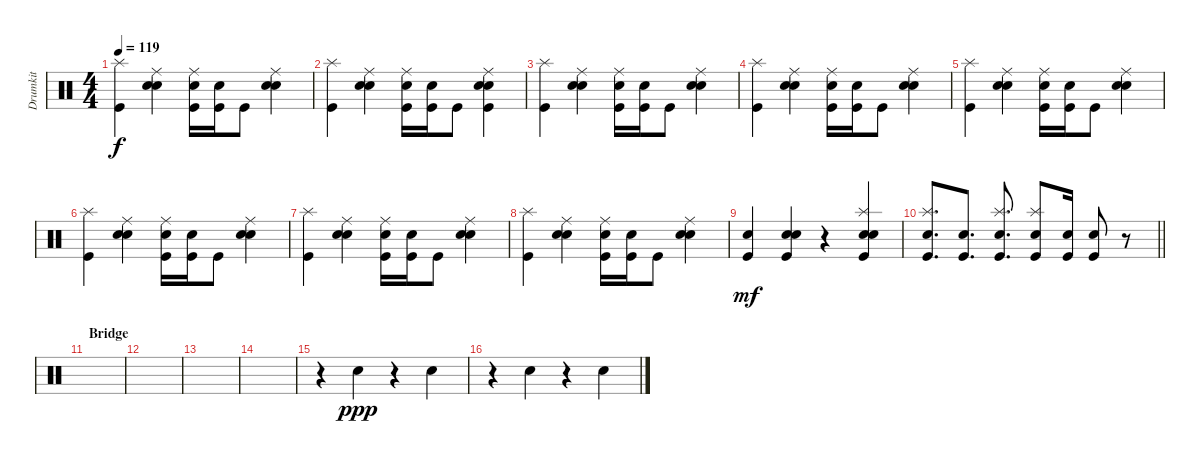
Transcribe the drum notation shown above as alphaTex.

\track ("Drumkit" "Drumkit") {instrument percussion}
\staff {score}
\articulation defaults
\ts (4 4)
\tempo 119
\clef neutral
\ks c
("Kick (hit)" "Splash (hit)").4{dy f} ("Hand Clap (hit)" "Snare (hit) 2" "Ride (middle)").4 ("Kick (hit)" "Snare (hit) 2" "Ride (middle)").16 ("Kick (hit)" "Snare (hit) 2").16 "Kick (hit)".8 ("Hand Clap (hit)" "Snare (hit) 2" "Ride (middle)").4 |
("Kick (hit)" "Splash (hit)").4 ("Hand Clap (hit)" "Snare (hit) 2" "Ride (middle)").4 ("Kick (hit)" "Snare (hit) 2" "Ride (middle)").16 ("Kick (hit)" "Snare (hit) 2").16 "Kick (hit)".8 ("Hand Clap (hit)" "Snare (hit) 2" "Ride (middle)" "Kick (hit)").4 |
("Kick (hit)" "Splash (hit)").4 ("Hand Clap (hit)" "Snare (hit) 2" "Ride (middle)").4 ("Kick (hit)" "Snare (hit) 2" "Ride (middle)").16 ("Kick (hit)" "Snare (hit) 2").16 "Kick (hit)".8 ("Hand Clap (hit)" "Snare (hit) 2" "Ride (middle)").4 |
("Kick (hit)" "Splash (hit)").4 ("Hand Clap (hit)" "Snare (hit) 2" "Ride (middle)").4 ("Kick (hit)" "Snare (hit) 2" "Ride (middle)").16 ("Kick (hit)" "Snare (hit) 2").16 "Kick (hit)".8 ("Hand Clap (hit)" "Snare (hit) 2" "Ride (middle)").4 |
("Kick (hit)" "Splash (hit)").4 ("Hand Clap (hit)" "Snare (hit) 2" "Ride (middle)").4 ("Kick (hit)" "Snare (hit) 2" "Ride (middle)").16 ("Kick (hit)" "Snare (hit) 2").16 "Kick (hit)".8 ("Hand Clap (hit)" "Snare (hit) 2" "Ride (middle)").4 |
("Kick (hit)" "Splash (hit)").4 ("Hand Clap (hit)" "Snare (hit) 2" "Ride (middle)").4 ("Kick (hit)" "Snare (hit) 2" "Ride (middle)").16 ("Kick (hit)" "Snare (hit) 2").16 "Kick (hit)".8 ("Hand Clap (hit)" "Snare (hit) 2" "Ride (middle)").4 |
("Kick (hit)" "Splash (hit)").4 ("Hand Clap (hit)" "Snare (hit) 2" "Ride (middle)").4 ("Kick (hit)" "Snare (hit) 2" "Ride (middle)").16 ("Kick (hit)" "Snare (hit) 2").16 "Kick (hit)".8 ("Hand Clap (hit)" "Snare (hit) 2" "Ride (middle)").4 |
("Kick (hit)" "Splash (hit)").4 ("Hand Clap (hit)" "Snare (hit) 2" "Ride (middle)").4 ("Kick (hit)" "Snare (hit) 2" "Ride (middle)").16 ("Kick (hit)" "Snare (hit) 2").16 "Kick (hit)".8 ("Hand Clap (hit)" "Snare (hit) 2" "Ride (middle)").4 |
("Kick (hit)" "Snare (hit) 2").4{dy mf} ("Hand Clap (hit)" "Kick (hit)" "Snare (hit) 2").4 r.4 ("Hand Clap (hit)" "Kick (hit)" "Snare (hit) 2" "Splash (hit)").4 |
\barLineRight lightlight
("Kick (hit)" "Splash (hit)" "Snare (hit) 2").8{d} ("Kick (hit)" "Snare (hit) 2").8{d} ("Kick (hit)" "Splash (hit)" "Snare (hit) 2").8{d} ("Kick (hit)" "Splash (hit)" "Snare (hit) 2").8 ("Kick (hit)" "Snare (hit) 2").16 ("Kick (hit)" "Snare (hit) 2").8 r.8 |
\section ("" "Bridge")
|
|
|
|
r.4 "Hand Clap (hit)".4{dy ppp} r.4 "Hand Clap (hit)".4 |
r.4 "Hand Clap (hit)".4 r.4 "Hand Clap (hit)".4
